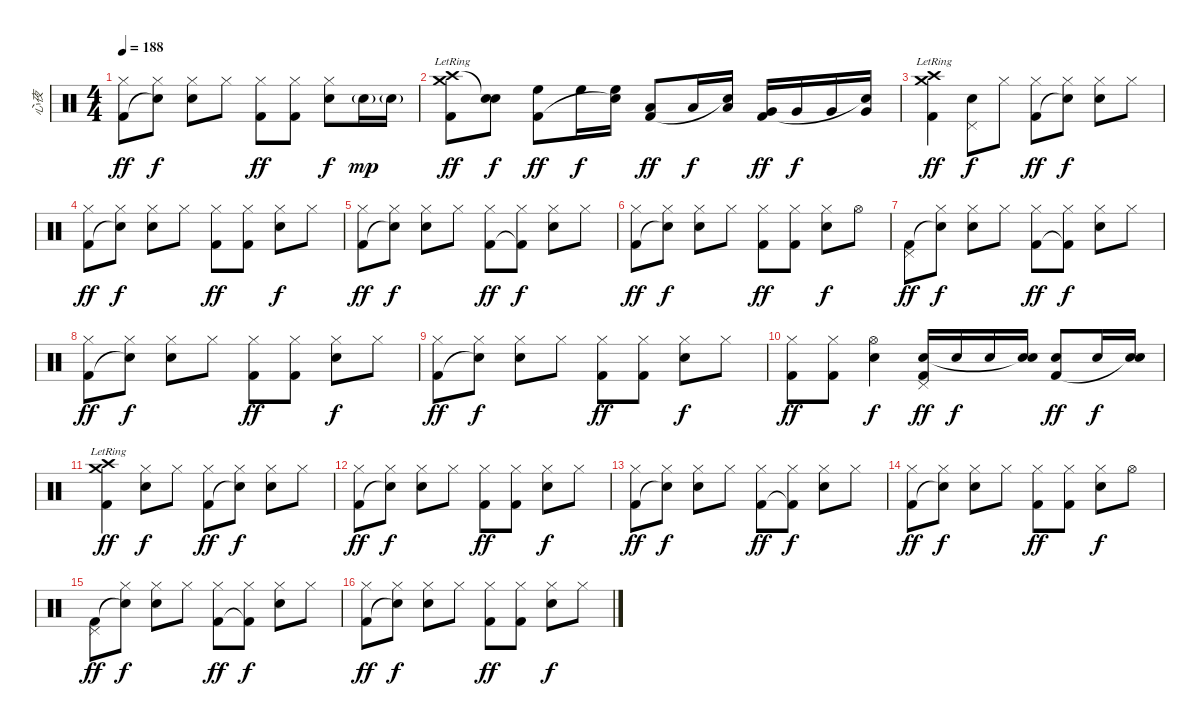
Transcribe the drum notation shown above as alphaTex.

\track ("心夜" "心夜") {instrument percussion}
\staff {score}
\articulation defaults
\ts (4 4)
\tempo 188
\clef neutral
\ks c
("Hi-Hat (closed)" "Kick (hit) 2").8{dy ff} ("Hi-Hat (closed)" "Snare (hit)"{t}).8{dy f} ("Hi-Hat (closed)" "Electric Snare (hit)").8 "Hi-Hat (closed)".8 ("Hi-Hat (closed)" "Kick (hit) 2").8{dy ff} ("Hi-Hat (closed)" "Kick (hit) 2").8 ("Hi-Hat (closed)" "Electric Snare (hit)").8{dy f} "Electric Snare (hit)"{g}.16{dy mp} "Electric Snare (hit)"{g}.16 |
("Crash medium (hit)"{lr} "Crash high (hit)"{lr} "Kick (hit) 2").8{dy ff} ("Electric Snare (hit)" "Snare (hit)"{t}).8{dy f} ("High Floor Tom (hit)" "Kick (hit) 2").8{dy ff} "High Floor Tom (hit)".16{dy f} ("High Floor Tom (hit)" "Snare (hit)"{t}).16 ("Low Tom (hit)" "Kick (hit) 2").8{dy ff} "Low Tom (hit)".16{dy f} ("Low Tom (hit)" "Snare (hit)"{t}).16 ("Very Low Tom (hit)" "Kick (hit) 2").16{dy ff} "Very Low Tom (hit)".16{dy f} "Very Low Tom (hit)".16 ("Very Low Tom (hit)" "Snare (hit)"{t}).16 |
("Crash medium (hit)"{lr} "Crash high (hit)"{lr} "Kick (hit) 2").4{dy ff} ("Pedal Hi-Hat (hit)" "Electric Snare (hit)").8{dy f} "Hi-Hat (closed)".8 ("Hi-Hat (closed)" "Kick (hit) 2").8{dy ff} ("Hi-Hat (closed)" "Snare (hit)"{t}).8{dy f} ("Hi-Hat (closed)" "Electric Snare (hit)").8 "Hi-Hat (closed)".8 |
("Hi-Hat (closed)" "Kick (hit) 2").8{dy ff} ("Hi-Hat (closed)" "Snare (hit)"{t}).8{dy f} ("Hi-Hat (closed)" "Electric Snare (hit)").8 "Hi-Hat (closed)".8 ("Hi-Hat (closed)" "Kick (hit) 2").8{dy ff} ("Hi-Hat (closed)" "Kick (hit) 2").8 ("Hi-Hat (closed)" "Electric Snare (hit)").8{dy f} "Hi-Hat (closed)".8 |
("Hi-Hat (closed)" "Kick (hit) 2").8{dy ff} ("Hi-Hat (closed)" "Snare (hit)"{t}).8{dy f} ("Hi-Hat (closed)" "Electric Snare (hit)").8 "Hi-Hat (closed)".8 ("Hi-Hat (closed)" "Kick (hit) 2").8{dy ff} ("Hi-Hat (closed)" "Kick (hit) 2"{t}).8{dy f} ("Hi-Hat (closed)" "Electric Snare (hit)").8 "Hi-Hat (closed)".8 |
("Hi-Hat (closed)" "Kick (hit) 2").8{dy ff} ("Hi-Hat (closed)" "Snare (hit)"{t}).8{dy f} ("Hi-Hat (closed)" "Electric Snare (hit)").8 "Hi-Hat (closed)".8 ("Hi-Hat (closed)" "Kick (hit) 2").8{dy ff} ("Hi-Hat (closed)" "Kick (hit) 2").8 ("Hi-Hat (closed)" "Electric Snare (hit)").8{dy f} "Hi-Hat (open)".8 |
("Pedal Hi-Hat (hit)" "Kick (hit) 2").8{dy ff} ("Hi-Hat (closed)" "Snare (hit)"{t}).8{dy f} ("Hi-Hat (closed)" "Electric Snare (hit)").8 "Hi-Hat (closed)".8 ("Hi-Hat (closed)" "Kick (hit) 2").8{dy ff} ("Hi-Hat (closed)" "Kick (hit) 2"{t}).8{dy f} ("Hi-Hat (closed)" "Electric Snare (hit)").8 "Hi-Hat (closed)".8 |
("Hi-Hat (closed)" "Kick (hit) 2").8{dy ff} ("Hi-Hat (closed)" "Snare (hit)"{t}).8{dy f} ("Hi-Hat (closed)" "Electric Snare (hit)").8 "Hi-Hat (closed)".8 ("Hi-Hat (closed)" "Kick (hit) 2").8{dy ff} ("Hi-Hat (closed)" "Kick (hit) 2").8 ("Hi-Hat (closed)" "Electric Snare (hit)").8{dy f} "Hi-Hat (closed)".8 |
("Hi-Hat (closed)" "Kick (hit) 2").8{dy ff} ("Hi-Hat (closed)" "Snare (hit)"{t}).8{dy f} ("Hi-Hat (closed)" "Electric Snare (hit)").8 "Hi-Hat (closed)".8 ("Hi-Hat (closed)" "Kick (hit) 2").8{dy ff} ("Hi-Hat (closed)" "Kick (hit) 2").8 ("Hi-Hat (closed)" "Electric Snare (hit)").8{dy f} "Hi-Hat (closed)".8 |
("Hi-Hat (closed)" "Kick (hit) 2").8{dy ff} ("Hi-Hat (closed)" "Kick (hit) 2").8 ("Hi-Hat (open)" "Electric Snare (hit)").4{dy f} ("Pedal Hi-Hat (hit)" "Electric Snare (hit)" "Kick (hit) 2").16{dy ff} "Electric Snare (hit)".16{dy f} "Electric Snare (hit)".16 ("Electric Snare (hit)" "Snare (hit)"{t}).16 ("Electric Snare (hit)" "Kick (hit) 2").8{dy ff} "Electric Snare (hit)".16{dy f} ("Electric Snare (hit)" "Snare (hit)"{t}).16 |
("Crash medium (hit)"{lr} "Crash high (hit)"{lr} "Kick (hit) 2").4{dy ff} ("Hi-Hat (closed)" "Electric Snare (hit)").8{dy f} "Hi-Hat (closed)".8 ("Hi-Hat (closed)" "Kick (hit) 2").8{dy ff} ("Hi-Hat (closed)" "Snare (hit)"{t}).8{dy f} ("Hi-Hat (closed)" "Electric Snare (hit)").8 "Hi-Hat (closed)".8 |
("Hi-Hat (closed)" "Kick (hit) 2").8{dy ff} ("Hi-Hat (closed)" "Snare (hit)"{t}).8{dy f} ("Hi-Hat (closed)" "Electric Snare (hit)").8 "Hi-Hat (closed)".8 ("Hi-Hat (closed)" "Kick (hit) 2").8{dy ff} ("Hi-Hat (closed)" "Kick (hit) 2").8 ("Hi-Hat (closed)" "Electric Snare (hit)").8{dy f} "Hi-Hat (closed)".8 |
("Hi-Hat (closed)" "Kick (hit) 2").8{dy ff} ("Hi-Hat (closed)" "Snare (hit)"{t}).8{dy f} ("Hi-Hat (closed)" "Electric Snare (hit)").8 "Hi-Hat (closed)".8 ("Hi-Hat (closed)" "Kick (hit) 2").8{dy ff} ("Hi-Hat (closed)" "Kick (hit) 2"{t}).8{dy f} ("Hi-Hat (closed)" "Electric Snare (hit)").8 "Hi-Hat (closed)".8 |
("Hi-Hat (closed)" "Kick (hit) 2").8{dy ff} ("Hi-Hat (closed)" "Snare (hit)"{t}).8{dy f} ("Hi-Hat (closed)" "Electric Snare (hit)").8 "Hi-Hat (closed)".8 ("Hi-Hat (closed)" "Kick (hit) 2").8{dy ff} ("Hi-Hat (closed)" "Kick (hit) 2").8 ("Hi-Hat (closed)" "Electric Snare (hit)").8{dy f} "Hi-Hat (open)".8 |
("Pedal Hi-Hat (hit)" "Kick (hit) 2").8{dy ff} ("Hi-Hat (closed)" "Snare (hit)"{t}).8{dy f} ("Hi-Hat (closed)" "Electric Snare (hit)").8 "Hi-Hat (closed)".8 ("Hi-Hat (closed)" "Kick (hit) 2").8{dy ff} ("Hi-Hat (closed)" "Kick (hit) 2"{t}).8{dy f} ("Hi-Hat (closed)" "Electric Snare (hit)").8 "Hi-Hat (closed)".8 |
("Hi-Hat (closed)" "Kick (hit) 2").8{dy ff} ("Hi-Hat (closed)" "Snare (hit)"{t}).8{dy f} ("Hi-Hat (closed)" "Electric Snare (hit)").8 "Hi-Hat (closed)".8 ("Hi-Hat (closed)" "Kick (hit) 2").8{dy ff} ("Hi-Hat (closed)" "Kick (hit) 2").8 ("Hi-Hat (closed)" "Electric Snare (hit)").8{dy f} "Hi-Hat (closed)".8
